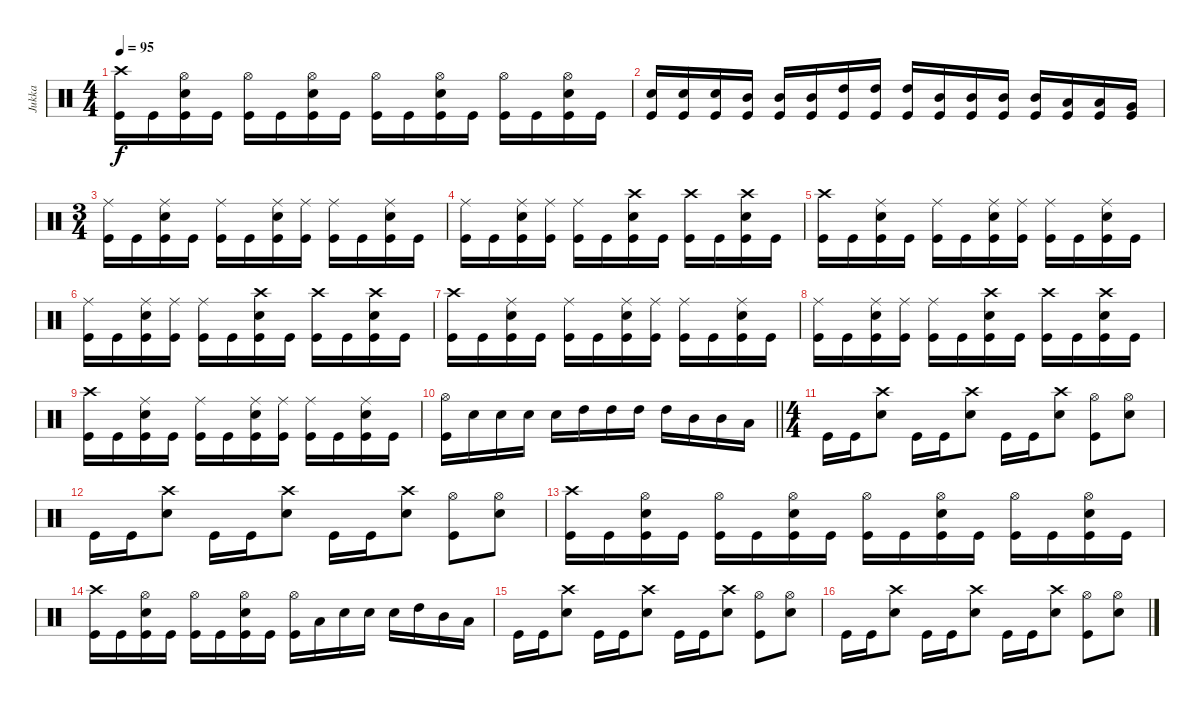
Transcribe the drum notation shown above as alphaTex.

\track ("Jukka" "Jukka") {instrument percussion}
\staff {score}
\articulation defaults
\ts (4 4)
\tempo 95
\clef neutral
\ks c
("Crash high (hit)" "Kick (hit)").16{dy f} "Kick (hit)".16 ("Hi-Hat (open)" "Electric Snare (hit)" "Kick (hit)").16 "Kick (hit)".16 ("Hi-Hat (open)" "Kick (hit)").16 "Kick (hit)".16 ("Hi-Hat (open)" "Electric Snare (hit)" "Kick (hit)").16 "Kick (hit)".16 ("Hi-Hat (open)" "Kick (hit)").16 "Kick (hit)".16 ("Hi-Hat (open)" "Electric Snare (hit)" "Kick (hit)").16 "Kick (hit)".16 ("Hi-Hat (open)" "Kick (hit)").16 "Kick (hit)".16 ("Hi-Hat (open)" "Electric Snare (hit)" "Kick (hit)").16 "Kick (hit)".16 |
("Electric Snare (hit)" "Kick (hit)").16 ("Electric Snare (hit)" "Kick (hit)").16 ("Electric Snare (hit)" "Kick (hit)").16 ("Mid Tom (hit)" "Kick (hit)").16 ("Mid Tom (hit)" "Kick (hit)").16 ("Mid Tom (hit)" "Kick (hit)").16 ("High Tom (hit)" "Kick (hit)").16 ("High Tom (hit)" "Kick (hit)").16 ("High Tom (hit)" "Kick (hit)").16 ("Mid Tom (hit)" "Kick (hit)").16 ("Mid Tom (hit)" "Kick (hit)").16 ("Mid Tom (hit)" "Kick (hit)").16 ("Mid Tom (hit)" "Kick (hit)").16 ("Low Tom (hit)" "Kick (hit)").16 ("Low Tom (hit)" "Kick (hit)").16 ("Very Low Tom (hit)" "Kick (hit)").16 |
\ts (3 4)
("Ride (middle)" "Kick (hit)").16 "Kick (hit)".16 ("Ride (middle)" "Electric Snare (hit)" "Kick (hit)").16 "Kick (hit)".16 ("Ride (middle)" "Kick (hit)").16 "Kick (hit)".16 ("Ride (middle)" "Electric Snare (hit)" "Kick (hit)").16 ("Ride (middle)" "Kick (hit)").16 ("Ride (middle)" "Kick (hit)").16 "Kick (hit)".16 ("Ride (middle)" "Electric Snare (hit)" "Kick (hit)").16 "Kick (hit)".16 |
("Ride (middle)" "Kick (hit)").16 "Kick (hit)".16 ("Ride (middle)" "Electric Snare (hit)" "Kick (hit)").16 ("Ride (middle)" "Kick (hit)").16 ("Ride (middle)" "Kick (hit)").16 "Kick (hit)".16 ("Crash high (hit)" "Electric Snare (hit)" "Kick (hit)").16 "Kick (hit)".16 ("Crash high (hit)" "Kick (hit)").16 "Kick (hit)".16 ("Crash high (hit)" "Electric Snare (hit)" "Kick (hit)").16 "Kick (hit)".16 |
("Crash high (hit)" "Kick (hit)").16 "Kick (hit)".16 ("Ride (middle)" "Electric Snare (hit)" "Kick (hit)").16 "Kick (hit)".16 ("Ride (middle)" "Kick (hit)").16 "Kick (hit)".16 ("Ride (middle)" "Electric Snare (hit)" "Kick (hit)").16 ("Ride (middle)" "Kick (hit)").16 ("Ride (middle)" "Kick (hit)").16 "Kick (hit)".16 ("Ride (middle)" "Electric Snare (hit)" "Kick (hit)").16 "Kick (hit)".16 |
("Ride (middle)" "Kick (hit)").16 "Kick (hit)".16 ("Ride (middle)" "Electric Snare (hit)" "Kick (hit)").16 ("Ride (middle)" "Kick (hit)").16 ("Ride (middle)" "Kick (hit)").16 "Kick (hit)".16 ("Crash high (hit)" "Electric Snare (hit)" "Kick (hit)").16 "Kick (hit)".16 ("Crash high (hit)" "Kick (hit)").16 "Kick (hit)".16 ("Crash high (hit)" "Electric Snare (hit)" "Kick (hit)").16 "Kick (hit)".16 |
("Crash high (hit)" "Kick (hit)").16 "Kick (hit)".16 ("Ride (middle)" "Electric Snare (hit)" "Kick (hit)").16 "Kick (hit)".16 ("Ride (middle)" "Kick (hit)").16 "Kick (hit)".16 ("Ride (middle)" "Electric Snare (hit)" "Kick (hit)").16 ("Ride (middle)" "Kick (hit)").16 ("Ride (middle)" "Kick (hit)").16 "Kick (hit)".16 ("Ride (middle)" "Electric Snare (hit)" "Kick (hit)").16 "Kick (hit)".16 |
("Ride (middle)" "Kick (hit)").16 "Kick (hit)".16 ("Ride (middle)" "Electric Snare (hit)" "Kick (hit)").16 ("Ride (middle)" "Kick (hit)").16 ("Ride (middle)" "Kick (hit)").16 "Kick (hit)".16 ("Crash high (hit)" "Electric Snare (hit)" "Kick (hit)").16 "Kick (hit)".16 ("Crash high (hit)" "Kick (hit)").16 "Kick (hit)".16 ("Crash high (hit)" "Electric Snare (hit)" "Kick (hit)").16 "Kick (hit)".16 |
("Crash high (hit)" "Kick (hit)").16 "Kick (hit)".16 ("Ride (middle)" "Electric Snare (hit)" "Kick (hit)").16 "Kick (hit)".16 ("Ride (middle)" "Kick (hit)").16 "Kick (hit)".16 ("Ride (middle)" "Electric Snare (hit)" "Kick (hit)").16 ("Ride (middle)" "Kick (hit)").16 ("Ride (middle)" "Kick (hit)").16 "Kick (hit)".16 ("Ride (middle)" "Electric Snare (hit)" "Kick (hit)").16 "Kick (hit)".16 |
\barLineRight lightlight
("Hi-Hat (open)" "Kick (hit)").16 "Electric Snare (hit)".16 "Electric Snare (hit)".16 "Electric Snare (hit)".16 "Electric Snare (hit)".16 "High Tom (hit)".16 "High Tom (hit)".16 "High Tom (hit)".16 "High Tom (hit)".16 "Mid Tom (hit)".16 "Mid Tom (hit)".16 "Low Tom (hit)".16 |
\ts (4 4)
"Kick (hit)".16 "Kick (hit)".16 ("Crash high (hit)" "Electric Snare (hit)").8 "Kick (hit)".16 "Kick (hit)".16 ("Crash high (hit)" "Electric Snare (hit)").8 "Kick (hit)".16 "Kick (hit)".16 ("Crash high (hit)" "Electric Snare (hit)").8 ("Hi-Hat (open)" "Kick (hit)").8 ("Hi-Hat (open)" "Electric Snare (hit)").8 |
"Kick (hit)".16 "Kick (hit)".16 ("Crash high (hit)" "Electric Snare (hit)").8 "Kick (hit)".16 "Kick (hit)".16 ("Crash high (hit)" "Electric Snare (hit)").8 "Kick (hit)".16 "Kick (hit)".16 ("Crash high (hit)" "Electric Snare (hit)").8 ("Hi-Hat (open)" "Kick (hit)").8 ("Hi-Hat (open)" "Electric Snare (hit)").8 |
("Crash high (hit)" "Kick (hit)").16 "Kick (hit)".16 ("Hi-Hat (open)" "Electric Snare (hit)" "Kick (hit)").16 "Kick (hit)".16 ("Hi-Hat (open)" "Kick (hit)").16 "Kick (hit)".16 ("Hi-Hat (open)" "Electric Snare (hit)" "Kick (hit)").16 "Kick (hit)".16 ("Hi-Hat (open)" "Kick (hit)").16 "Kick (hit)".16 ("Hi-Hat (open)" "Electric Snare (hit)" "Kick (hit)").16 "Kick (hit)".16 ("Hi-Hat (open)" "Kick (hit)").16 "Kick (hit)".16 ("Hi-Hat (open)" "Electric Snare (hit)" "Kick (hit)").16 "Kick (hit)".16 |
("Crash high (hit)" "Kick (hit)").16 "Kick (hit)".16 ("Hi-Hat (open)" "Electric Snare (hit)" "Kick (hit)").16 "Kick (hit)".16 ("Hi-Hat (open)" "Kick (hit)").16 "Kick (hit)".16 ("Hi-Hat (open)" "Electric Snare (hit)" "Kick (hit)").16 "Kick (hit)".16 ("Hi-Hat (open)" "Kick (hit)").16 "Low Tom (hit)".16 "Electric Snare (hit)".16 "Electric Snare (hit)".16 "Electric Snare (hit)".16 "High Tom (hit)".16 "Mid Tom (hit)".16 "Low Tom (hit)".16 |
"Kick (hit)".16 "Kick (hit)".16 ("Crash high (hit)" "Electric Snare (hit)").8 "Kick (hit)".16 "Kick (hit)".16 ("Crash high (hit)" "Electric Snare (hit)").8 "Kick (hit)".16 "Kick (hit)".16 ("Crash high (hit)" "Electric Snare (hit)").8 ("Hi-Hat (open)" "Kick (hit)").8 ("Hi-Hat (open)" "Electric Snare (hit)").8 |
"Kick (hit)".16 "Kick (hit)".16 ("Crash high (hit)" "Electric Snare (hit)").8 "Kick (hit)".16 "Kick (hit)".16 ("Crash high (hit)" "Electric Snare (hit)").8 "Kick (hit)".16 "Kick (hit)".16 ("Crash high (hit)" "Electric Snare (hit)").8 ("Hi-Hat (open)" "Kick (hit)").8 ("Hi-Hat (open)" "Electric Snare (hit)").8
